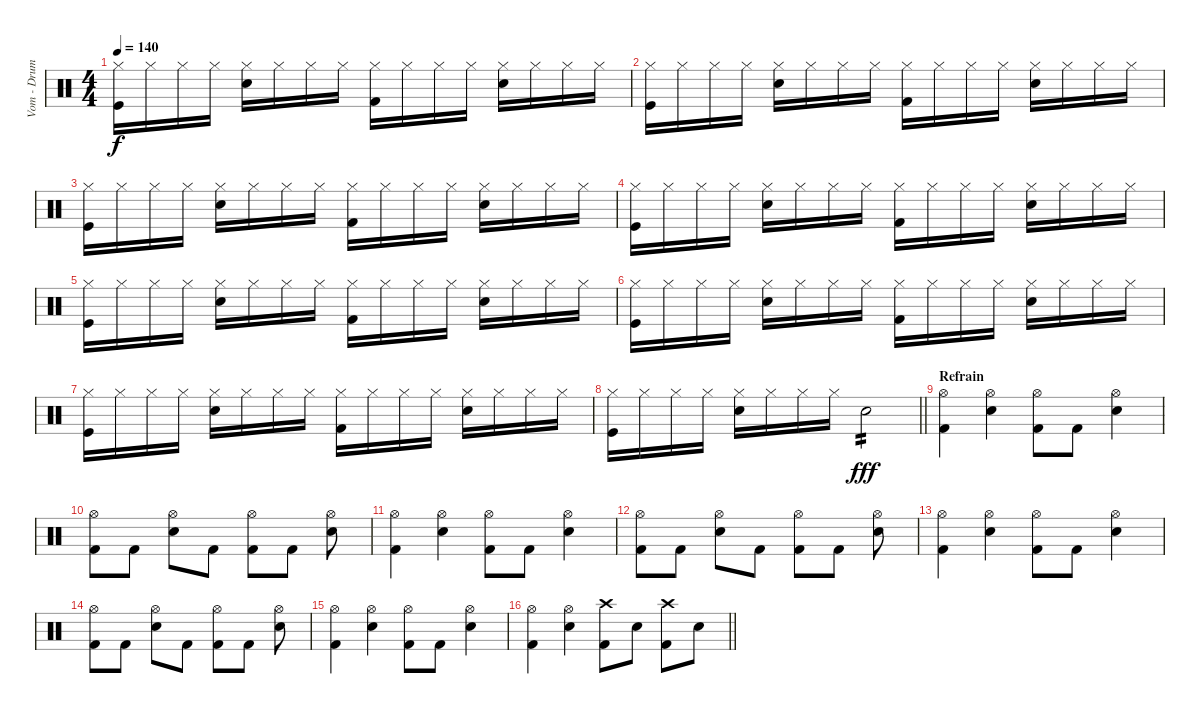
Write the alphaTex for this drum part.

\track ("Vom - Drums" "Vom - Drum") {instrument percussion}
\staff {score}
\articulation defaults
\ts (4 4)
\tempo 140
\clef neutral
\ks c
("Hi-Hat (closed)" "Kick (hit)").16{dy f} "Hi-Hat (closed)".16 "Hi-Hat (closed)".16 "Hi-Hat (closed)".16 ("Hi-Hat (closed)" "Snare (hit) 2").16 "Hi-Hat (closed)".16 "Hi-Hat (closed)".16 "Hi-Hat (closed)".16 ("Hi-Hat (closed)" "Kick (hit) 2").16 "Hi-Hat (closed)".16 "Hi-Hat (closed)".16 "Hi-Hat (closed)".16 ("Hi-Hat (closed)" "Snare (hit) 2").16 "Hi-Hat (closed)".16 "Hi-Hat (closed)".16 "Hi-Hat (closed)".16 |
("Hi-Hat (closed)" "Kick (hit)").16 "Hi-Hat (closed)".16 "Hi-Hat (closed)".16 "Hi-Hat (closed)".16 ("Hi-Hat (closed)" "Snare (hit) 2").16 "Hi-Hat (closed)".16 "Hi-Hat (closed)".16 "Hi-Hat (closed)".16 ("Hi-Hat (closed)" "Kick (hit) 2").16 "Hi-Hat (closed)".16 "Hi-Hat (closed)".16 "Hi-Hat (closed)".16 ("Hi-Hat (closed)" "Snare (hit) 2").16 "Hi-Hat (closed)".16 "Hi-Hat (closed)".16 "Hi-Hat (closed)".16 |
("Hi-Hat (closed)" "Kick (hit)").16 "Hi-Hat (closed)".16 "Hi-Hat (closed)".16 "Hi-Hat (closed)".16 ("Hi-Hat (closed)" "Snare (hit) 2").16 "Hi-Hat (closed)".16 "Hi-Hat (closed)".16 "Hi-Hat (closed)".16 ("Hi-Hat (closed)" "Kick (hit) 2").16 "Hi-Hat (closed)".16 "Hi-Hat (closed)".16 "Hi-Hat (closed)".16 ("Hi-Hat (closed)" "Snare (hit) 2").16 "Hi-Hat (closed)".16 "Hi-Hat (closed)".16 "Hi-Hat (closed)".16 |
("Hi-Hat (closed)" "Kick (hit)").16 "Hi-Hat (closed)".16 "Hi-Hat (closed)".16 "Hi-Hat (closed)".16 ("Hi-Hat (closed)" "Snare (hit) 2").16 "Hi-Hat (closed)".16 "Hi-Hat (closed)".16 "Hi-Hat (closed)".16 ("Hi-Hat (closed)" "Kick (hit) 2").16 "Hi-Hat (closed)".16 "Hi-Hat (closed)".16 "Hi-Hat (closed)".16 ("Hi-Hat (closed)" "Snare (hit) 2").16 "Hi-Hat (closed)".16 "Hi-Hat (closed)".16 "Hi-Hat (closed)".16 |
("Hi-Hat (closed)" "Kick (hit)").16 "Hi-Hat (closed)".16 "Hi-Hat (closed)".16 "Hi-Hat (closed)".16 ("Hi-Hat (closed)" "Snare (hit) 2").16 "Hi-Hat (closed)".16 "Hi-Hat (closed)".16 "Hi-Hat (closed)".16 ("Hi-Hat (closed)" "Kick (hit) 2").16 "Hi-Hat (closed)".16 "Hi-Hat (closed)".16 "Hi-Hat (closed)".16 ("Hi-Hat (closed)" "Snare (hit) 2").16 "Hi-Hat (closed)".16 "Hi-Hat (closed)".16 "Hi-Hat (closed)".16 |
("Hi-Hat (closed)" "Kick (hit)").16 "Hi-Hat (closed)".16 "Hi-Hat (closed)".16 "Hi-Hat (closed)".16 ("Hi-Hat (closed)" "Snare (hit) 2").16 "Hi-Hat (closed)".16 "Hi-Hat (closed)".16 "Hi-Hat (closed)".16 ("Hi-Hat (closed)" "Kick (hit) 2").16 "Hi-Hat (closed)".16 "Hi-Hat (closed)".16 "Hi-Hat (closed)".16 ("Hi-Hat (closed)" "Snare (hit) 2").16 "Hi-Hat (closed)".16 "Hi-Hat (closed)".16 "Hi-Hat (closed)".16 |
("Hi-Hat (closed)" "Kick (hit)").16 "Hi-Hat (closed)".16 "Hi-Hat (closed)".16 "Hi-Hat (closed)".16 ("Hi-Hat (closed)" "Snare (hit) 2").16 "Hi-Hat (closed)".16 "Hi-Hat (closed)".16 "Hi-Hat (closed)".16 ("Hi-Hat (closed)" "Kick (hit) 2").16 "Hi-Hat (closed)".16 "Hi-Hat (closed)".16 "Hi-Hat (closed)".16 ("Hi-Hat (closed)" "Snare (hit) 2").16 "Hi-Hat (closed)".16 "Hi-Hat (closed)".16 "Hi-Hat (closed)".16 |
\barLineRight lightlight
("Hi-Hat (closed)" "Kick (hit)").16 "Hi-Hat (closed)".16 "Hi-Hat (closed)".16 "Hi-Hat (closed)".16 ("Hi-Hat (closed)" "Snare (hit) 2").16 "Hi-Hat (closed)".16 "Hi-Hat (closed)".16 "Hi-Hat (closed)".16 "Snare (hit) 2".2{tp 2 dy fff} |
\section ("" "Refrain")
("Hi-Hat (open)" "Kick (hit) 2").4 ("Hi-Hat (open)" "Snare (hit) 2").4 ("Hi-Hat (open)" "Kick (hit) 2").8 "Kick (hit) 2".8 ("Hi-Hat (open)" "Snare (hit) 2").4 |
("Hi-Hat (open)" "Kick (hit) 2").8 "Kick (hit) 2".8 ("Hi-Hat (open)" "Snare (hit) 2").8 "Kick (hit) 2".8 ("Hi-Hat (open)" "Kick (hit) 2").8 "Kick (hit) 2".8 ("Hi-Hat (open)" "Snare (hit) 2").8 |
("Hi-Hat (open)" "Kick (hit) 2").4 ("Hi-Hat (open)" "Snare (hit) 2").4 ("Hi-Hat (open)" "Kick (hit) 2").8 "Kick (hit) 2".8 ("Hi-Hat (open)" "Snare (hit) 2").4 |
("Hi-Hat (open)" "Kick (hit) 2").8 "Kick (hit) 2".8 ("Hi-Hat (open)" "Snare (hit) 2").8 "Kick (hit) 2".8 ("Hi-Hat (open)" "Kick (hit) 2").8 "Kick (hit) 2".8 ("Hi-Hat (open)" "Snare (hit) 2").8 |
("Hi-Hat (open)" "Kick (hit) 2").4 ("Hi-Hat (open)" "Snare (hit) 2").4 ("Hi-Hat (open)" "Kick (hit) 2").8 "Kick (hit) 2".8 ("Hi-Hat (open)" "Snare (hit) 2").4 |
("Hi-Hat (open)" "Kick (hit) 2").8 "Kick (hit) 2".8 ("Hi-Hat (open)" "Snare (hit) 2").8 "Kick (hit) 2".8 ("Hi-Hat (open)" "Kick (hit) 2").8 "Kick (hit) 2".8 ("Hi-Hat (open)" "Snare (hit) 2").8 |
("Hi-Hat (open)" "Kick (hit) 2").4 ("Hi-Hat (open)" "Snare (hit) 2").4 ("Hi-Hat (open)" "Kick (hit) 2").8 "Kick (hit) 2".8 ("Hi-Hat (open)" "Snare (hit) 2").4 |
\barLineRight lightlight
("Hi-Hat (open)" "Kick (hit) 2").4 ("Hi-Hat (open)" "Snare (hit) 2").4 ("Crash high (hit)" "Kick (hit) 2").8 "Snare (hit) 2".8 ("Crash high (hit)" "Kick (hit) 2").8 "Snare (hit) 2".8
